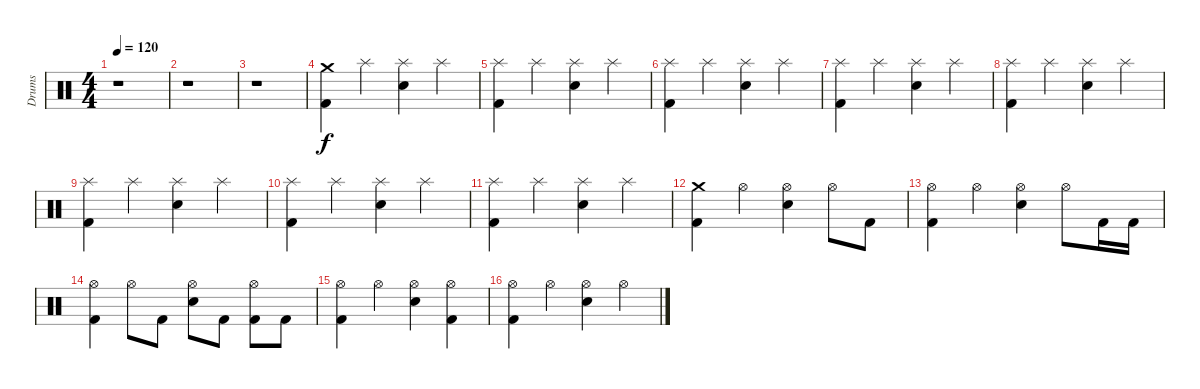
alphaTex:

\track ("Drums" "Drums") {instrument percussion}
\staff {score}
\articulation defaults
\ts (4 4)
\tempo 120
\clef neutral
\ks c
r.1{dy f} |
r.1 |
r.1 |
("Kick (hit) 2" "Crash medium (hit)").4 "Splash (hit)".4 ("Electric Snare (hit)" "Splash (hit)").4 "Splash (hit)".4 |
("Kick (hit) 2" "Splash (hit)").4 "Splash (hit)".4 ("Electric Snare (hit)" "Splash (hit)").4 "Splash (hit)".4 |
("Kick (hit) 2" "Splash (hit)").4 "Splash (hit)".4 ("Electric Snare (hit)" "Splash (hit)").4 "Splash (hit)".4 |
("Kick (hit) 2" "Splash (hit)").4 "Splash (hit)".4 ("Electric Snare (hit)" "Splash (hit)").4 "Splash (hit)".4 |
("Kick (hit) 2" "Splash (hit)").4 "Splash (hit)".4 ("Electric Snare (hit)" "Splash (hit)").4 "Splash (hit)".4 |
("Kick (hit) 2" "Splash (hit)").4 "Splash (hit)".4 ("Electric Snare (hit)" "Splash (hit)").4 "Splash (hit)".4 |
("Kick (hit) 2" "Splash (hit)").4 "Splash (hit)".4 ("Electric Snare (hit)" "Splash (hit)").4 "Splash (hit)".4 |
("Kick (hit) 2" "Splash (hit)").4 "Splash (hit)".4 ("Electric Snare (hit)" "Splash (hit)").4 "Splash (hit)".4 |
("Kick (hit) 2" "Crash medium (hit)").4 "Hi-Hat (open)".4 ("Electric Snare (hit)" "Hi-Hat (open)").4 "Hi-Hat (open)".8 "Kick (hit) 2".8 |
("Kick (hit) 2" "Hi-Hat (open)").4 "Hi-Hat (open)".4 ("Electric Snare (hit)" "Hi-Hat (open)").4 "Hi-Hat (open)".8 "Kick (hit) 2".16 "Kick (hit) 2".16 |
("Kick (hit) 2" "Hi-Hat (open)").4 "Hi-Hat (open)".8 "Kick (hit) 2".8 ("Electric Snare (hit)" "Hi-Hat (open)").8 "Kick (hit) 2".8 ("Kick (hit) 2" "Hi-Hat (open)").8 "Kick (hit) 2".8 |
("Kick (hit) 2" "Hi-Hat (open)").4 "Hi-Hat (open)".4 ("Electric Snare (hit)" "Hi-Hat (open)").4 ("Kick (hit) 2" "Hi-Hat (open)").4 |
("Kick (hit) 2" "Hi-Hat (open)").4 "Hi-Hat (open)".4 ("Electric Snare (hit)" "Hi-Hat (open)").4 "Hi-Hat (open)".4
